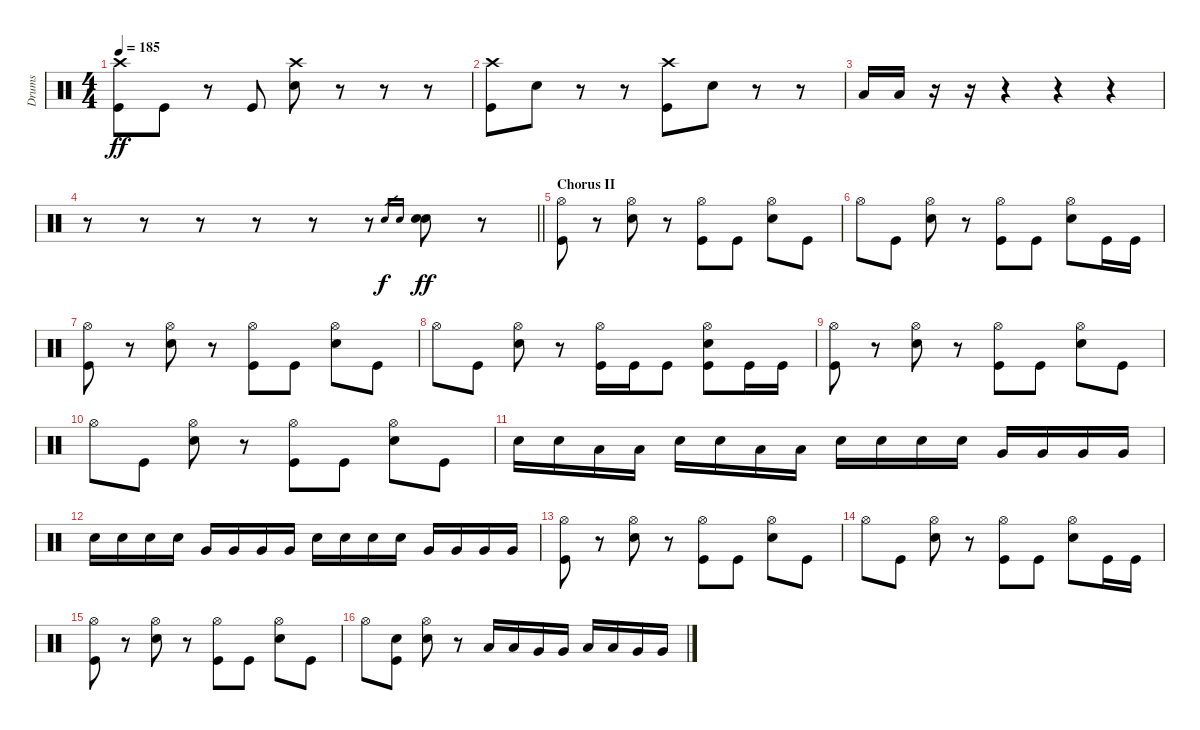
\track ("Drums" "Drums") {instrument percussion}
\staff {score}
\articulation defaults
\ts (4 4)
\tempo 185
\clef neutral
\ks c
("Crash high (hit)" "Kick (hit)").8{dy ff} "Kick (hit)".8 r.8 "Kick (hit)".8 ("Crash high (hit)" "Electric Snare (hit)").8 r.8 r.8 r.8 |
("Crash high (hit)" "Kick (hit)").8 "Electric Snare (hit)".8 r.8 r.8 ("Crash high (hit)" "Kick (hit)").8 "Electric Snare (hit)".8 r.8 r.8 |
"Low Floor Tom (hit)".16 "Low Floor Tom (hit)".16 r.16 r.16 r.4 r.4 r.4 |
\barLineRight lightlight
r.8 r.8 r.8 r.8 r.8 r.8 "Electric Snare (hit)".16{gr dy f} "Electric Snare (hit)".16{gr} ("Electric Snare (hit)" "Electric Snare (hit)").8{dy ff} r.8 |
\section ("" "Chorus II")
("Hi-Hat (open)" "Kick (hit)").8 r.8 ("Hi-Hat (open)" "Electric Snare (hit)").8 r.8 ("Hi-Hat (open)" "Kick (hit)").8 "Kick (hit)".8 ("Hi-Hat (open)" "Electric Snare (hit)").8 "Kick (hit)".8 |
"Hi-Hat (open)".8 "Kick (hit)".8 ("Hi-Hat (open)" "Electric Snare (hit)").8 r.8 ("Hi-Hat (open)" "Kick (hit)").8 "Kick (hit)".8 ("Hi-Hat (open)" "Electric Snare (hit)").8 "Kick (hit)".16 "Kick (hit)".16 |
("Hi-Hat (open)" "Kick (hit)").8 r.8 ("Hi-Hat (open)" "Electric Snare (hit)").8 r.8 ("Hi-Hat (open)" "Kick (hit)").8 "Kick (hit)".8 ("Hi-Hat (open)" "Electric Snare (hit)").8 "Kick (hit)".8 |
"Hi-Hat (open)".8 "Kick (hit)".8 ("Hi-Hat (open)" "Electric Snare (hit)").8 r.8 ("Hi-Hat (open)" "Kick (hit)").16 "Kick (hit)".16 "Kick (hit)".8 ("Hi-Hat (open)" "Electric Snare (hit)" "Kick (hit)").8 "Kick (hit)".16 "Kick (hit)".16 |
("Hi-Hat (open)" "Kick (hit)").8 r.8 ("Hi-Hat (open)" "Electric Snare (hit)").8 r.8 ("Hi-Hat (open)" "Kick (hit)").8 "Kick (hit)".8 ("Hi-Hat (open)" "Electric Snare (hit)").8 "Kick (hit)".8 |
"Hi-Hat (open)".8 "Kick (hit)".8 ("Hi-Hat (open)" "Electric Snare (hit)").8 r.8 ("Hi-Hat (open)" "Kick (hit)").8 "Kick (hit)".8 ("Hi-Hat (open)" "Electric Snare (hit)").8 "Kick (hit)".8 |
"Electric Snare (hit)".16 "Electric Snare (hit)".16 "Low Tom (hit)".16 "Low Tom (hit)".16 "Electric Snare (hit)".16 "Electric Snare (hit)".16 "Low Tom (hit)".16 "Low Tom (hit)".16 "Electric Snare (hit)".16 "Electric Snare (hit)".16 "Electric Snare (hit)".16 "Electric Snare (hit)".16 "Very Low Tom (hit)".16 "Very Low Tom (hit)".16 "Very Low Tom (hit)".16 "Very Low Tom (hit)".16 |
"Electric Snare (hit)".16 "Electric Snare (hit)".16 "Electric Snare (hit)".16 "Electric Snare (hit)".16 "Very Low Tom (hit)".16 "Very Low Tom (hit)".16 "Very Low Tom (hit)".16 "Very Low Tom (hit)".16 "Electric Snare (hit)".16 "Electric Snare (hit)".16 "Electric Snare (hit)".16 "Electric Snare (hit)".16 "Very Low Tom (hit)".16 "Very Low Tom (hit)".16 "Very Low Tom (hit)".16 "Very Low Tom (hit)".16 |
("Hi-Hat (open)" "Kick (hit)").8 r.8 ("Hi-Hat (open)" "Electric Snare (hit)").8 r.8 ("Hi-Hat (open)" "Kick (hit)").8 "Kick (hit)".8 ("Hi-Hat (open)" "Electric Snare (hit)").8 "Kick (hit)".8 |
"Hi-Hat (open)".8 "Kick (hit)".8 ("Hi-Hat (open)" "Electric Snare (hit)").8 r.8 ("Hi-Hat (open)" "Kick (hit)").8 "Kick (hit)".8 ("Hi-Hat (open)" "Electric Snare (hit)").8 "Kick (hit)".16 "Kick (hit)".16 |
("Hi-Hat (open)" "Kick (hit)").8 r.8 ("Hi-Hat (open)" "Electric Snare (hit)").8 r.8 ("Hi-Hat (open)" "Kick (hit)").8 "Kick (hit)".8 ("Hi-Hat (open)" "Electric Snare (hit)").8 "Kick (hit)".8 |
"Hi-Hat (open)".8 ("Electric Snare (hit)" "Kick (hit)").8 ("Hi-Hat (open)" "Electric Snare (hit)").8 r.8 "Low Tom (hit)".16 "Low Tom (hit)".16 "Very Low Tom (hit)".16 "Very Low Tom (hit)".16 "Low Tom (hit)".16 "Low Tom (hit)".16 "Very Low Tom (hit)".16 "Very Low Tom (hit)".16
